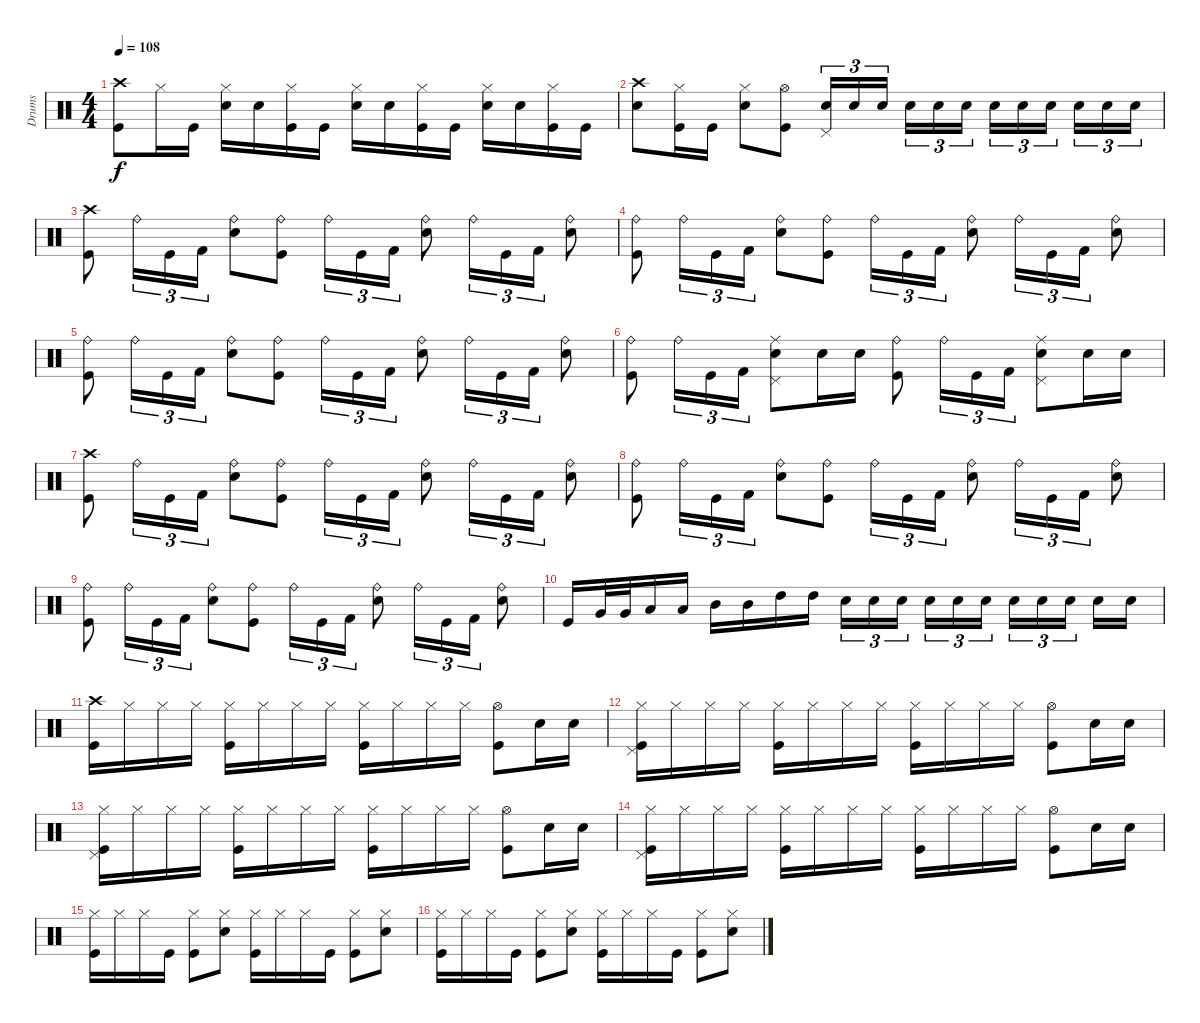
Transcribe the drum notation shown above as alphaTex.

\track ("Drums" "Drums") {instrument percussion}
\staff {score}
\articulation defaults
\ts (4 4)
\tempo 108
\clef neutral
\ks c
("Crash high (hit)" "Kick (hit)").8{dy f} "Hi-Hat (closed)".16 "Kick (hit)".16 ("Snare (hit) 2" "Hi-Hat (closed)").16 "Snare (hit) 2".16 ("Kick (hit)" "Hi-Hat (closed)").16 "Kick (hit)".16 ("Snare (hit) 2" "Hi-Hat (closed)").16 "Snare (hit) 2".16 ("Kick (hit)" "Hi-Hat (closed)").16 "Kick (hit)".16 ("Snare (hit) 2" "Hi-Hat (closed)").16 "Snare (hit) 2".16 ("Kick (hit)" "Hi-Hat (closed)").16 "Kick (hit)".16 |
("Crash high (hit)" "Snare (hit) 2").8 ("Hi-Hat (closed)" "Kick (hit)").16 "Kick (hit)".16 ("Snare (hit) 2" "Hi-Hat (closed)").8 ("Hi-Hat (open)" "Kick (hit)").8 ("Snare (hit) 2" "Pedal Hi-Hat (hit)").16{tu (3 2)} "Snare (hit) 2".16{tu (3 2)} "Snare (hit) 2".16{tu (3 2)} "Snare (hit) 2".16{tu (3 2)} "Snare (hit) 2".16{tu (3 2)} "Snare (hit) 2".16{tu (3 2)} "Snare (hit) 2".16{tu (3 2)} "Snare (hit) 2".16{tu (3 2)} "Snare (hit) 2".16{tu (3 2)} "Snare (hit) 2".16{tu (3 2)} "Snare (hit) 2".16{tu (3 2)} "Snare (hit) 2".16{tu (3 2)} |
("Kick (hit)" "Crash high (hit)").8 "Ride (bell)".16{tu (3 2)} "Kick (hit)".16{tu (3 2)} "Kick (hit) 2".16{tu (3 2)} ("Snare (hit) 2" "Ride (bell)").8 ("Kick (hit)" "Ride (bell)").8 "Ride (bell)".16{tu (3 2)} "Kick (hit)".16{tu (3 2)} "Kick (hit) 2".16{tu (3 2)} ("Snare (hit) 2" "Ride (bell)").8 "Ride (bell)".16{tu (3 2)} "Kick (hit)".16{tu (3 2)} "Kick (hit) 2".16{tu (3 2)} ("Snare (hit) 2" "Ride (bell)").8 |
("Kick (hit)" "Ride (bell)").8 "Ride (bell)".16{tu (3 2)} "Kick (hit)".16{tu (3 2)} "Kick (hit) 2".16{tu (3 2)} ("Snare (hit) 2" "Ride (bell)").8 ("Kick (hit)" "Ride (bell)").8 "Ride (bell)".16{tu (3 2)} "Kick (hit)".16{tu (3 2)} "Kick (hit) 2".16{tu (3 2)} ("Snare (hit) 2" "Ride (bell)").8 "Ride (bell)".16{tu (3 2)} "Kick (hit)".16{tu (3 2)} "Kick (hit) 2".16{tu (3 2)} ("Snare (hit) 2" "Ride (bell)").8 |
("Kick (hit)" "Ride (bell)").8 "Ride (bell)".16{tu (3 2)} "Kick (hit)".16{tu (3 2)} "Kick (hit) 2".16{tu (3 2)} ("Snare (hit) 2" "Ride (bell)").8 ("Kick (hit)" "Ride (bell)").8 "Ride (bell)".16{tu (3 2)} "Kick (hit)".16{tu (3 2)} "Kick (hit) 2".16{tu (3 2)} ("Snare (hit) 2" "Ride (bell)").8 "Ride (bell)".16{tu (3 2)} "Kick (hit)".16{tu (3 2)} "Kick (hit) 2".16{tu (3 2)} ("Snare (hit) 2" "Ride (bell)").8 |
("Kick (hit)" "Ride (bell)").8 "Ride (bell)".16{tu (3 2)} "Kick (hit)".16{tu (3 2)} "Kick (hit) 2".16{tu (3 2)} ("Pedal Hi-Hat (hit)" "Ride (middle)" "Snare (hit) 2").8 "Snare (hit) 2".16 "Snare (hit) 2".16 ("Kick (hit)" "Ride (bell)").8 "Ride (bell)".16{tu (3 2)} "Kick (hit)".16{tu (3 2)} "Kick (hit) 2".16{tu (3 2)} ("Pedal Hi-Hat (hit)" "Ride (middle)" "Snare (hit) 2").8 "Snare (hit) 2".16 "Snare (hit) 2".16 |
("Kick (hit)" "Crash high (hit)").8 "Ride (bell)".16{tu (3 2)} "Kick (hit)".16{tu (3 2)} "Kick (hit) 2".16{tu (3 2)} ("Snare (hit) 2" "Ride (bell)").8 ("Kick (hit)" "Ride (bell)").8 "Ride (bell)".16{tu (3 2)} "Kick (hit)".16{tu (3 2)} "Kick (hit) 2".16{tu (3 2)} ("Snare (hit) 2" "Ride (bell)").8 "Ride (bell)".16{tu (3 2)} "Kick (hit)".16{tu (3 2)} "Kick (hit) 2".16{tu (3 2)} ("Snare (hit) 2" "Ride (bell)").8 |
("Kick (hit)" "Ride (bell)").8 "Ride (bell)".16{tu (3 2)} "Kick (hit)".16{tu (3 2)} "Kick (hit) 2".16{tu (3 2)} ("Snare (hit) 2" "Ride (bell)").8 ("Kick (hit)" "Ride (bell)").8 "Ride (bell)".16{tu (3 2)} "Kick (hit)".16{tu (3 2)} "Kick (hit) 2".16{tu (3 2)} ("Snare (hit) 2" "Ride (bell)").8 "Ride (bell)".16{tu (3 2)} "Kick (hit)".16{tu (3 2)} "Kick (hit) 2".16{tu (3 2)} ("Snare (hit) 2" "Ride (bell)").8 |
("Kick (hit)" "Ride (bell)").8 "Ride (bell)".16{tu (3 2)} "Kick (hit)".16{tu (3 2)} "Kick (hit) 2".16{tu (3 2)} ("Snare (hit) 2" "Ride (bell)").8 ("Kick (hit)" "Ride (bell)").8 "Ride (bell)".16{tu (3 2)} "Kick (hit)".16{tu (3 2)} "Kick (hit) 2".16{tu (3 2)} ("Snare (hit) 2" "Ride (bell)").8 "Ride (bell)".16{tu (3 2)} "Kick (hit)".16{tu (3 2)} "Kick (hit) 2".16{tu (3 2)} ("Snare (hit) 2" "Ride (bell)").8 |
"Kick (hit)".16 "Very Low Tom (hit)".32 "Very Low Tom (hit)".32 "Low Tom (hit)".16 "Low Tom (hit)".16 "Mid Tom (hit)".16 "Mid Tom (hit)".16 "High Tom (hit)".16 "High Tom (hit)".16 "Snare (hit) 2".16{tu (3 2)} "Snare (hit) 2".16{tu (3 2)} "Snare (hit) 2".16{tu (3 2)} "Snare (hit) 2".16{tu (3 2)} "Snare (hit) 2".16{tu (3 2)} "Snare (hit) 2".16{tu (3 2)} "Snare (hit) 2".16{tu (3 2)} "Snare (hit) 2".16{tu (3 2)} "Snare (hit) 2".16{tu (3 2)} "Snare (hit) 2".16 "Snare (hit) 2".16 |
("Kick (hit)" "Crash high (hit)").16 "Hi-Hat (closed)".16 "Hi-Hat (closed)".16 "Hi-Hat (closed)".16 ("Kick (hit)" "Hi-Hat (closed)").16 "Hi-Hat (closed)".16 "Hi-Hat (closed)".16 "Hi-Hat (closed)".16 ("Kick (hit)" "Hi-Hat (closed)").16 "Hi-Hat (closed)".16 "Hi-Hat (closed)".16 "Hi-Hat (closed)".16 ("Hi-Hat (open)" "Kick (hit)").8 "Snare (hit) 2".16 "Snare (hit) 2".16 |
("Kick (hit)" "Pedal Hi-Hat (hit)" "Hi-Hat (closed)").16 "Hi-Hat (closed)".16 "Hi-Hat (closed)".16 "Hi-Hat (closed)".16 ("Kick (hit)" "Hi-Hat (closed)").16 "Hi-Hat (closed)".16 "Hi-Hat (closed)".16 "Hi-Hat (closed)".16 ("Kick (hit)" "Hi-Hat (closed)").16 "Hi-Hat (closed)".16 "Hi-Hat (closed)".16 "Hi-Hat (closed)".16 ("Hi-Hat (open)" "Kick (hit)").8 "Snare (hit) 2".16 "Snare (hit) 2".16 |
("Kick (hit)" "Pedal Hi-Hat (hit)" "Hi-Hat (closed)").16 "Hi-Hat (closed)".16 "Hi-Hat (closed)".16 "Hi-Hat (closed)".16 ("Kick (hit)" "Hi-Hat (closed)").16 "Hi-Hat (closed)".16 "Hi-Hat (closed)".16 "Hi-Hat (closed)".16 ("Kick (hit)" "Hi-Hat (closed)").16 "Hi-Hat (closed)".16 "Hi-Hat (closed)".16 "Hi-Hat (closed)".16 ("Hi-Hat (open)" "Kick (hit)").8 "Snare (hit) 2".16 "Snare (hit) 2".16 |
("Kick (hit)" "Pedal Hi-Hat (hit)" "Hi-Hat (closed)").16 "Hi-Hat (closed)".16 "Hi-Hat (closed)".16 "Hi-Hat (closed)".16 ("Kick (hit)" "Hi-Hat (closed)").16 "Hi-Hat (closed)".16 "Hi-Hat (closed)".16 "Hi-Hat (closed)".16 ("Kick (hit)" "Hi-Hat (closed)").16 "Hi-Hat (closed)".16 "Hi-Hat (closed)".16 "Hi-Hat (closed)".16 ("Hi-Hat (open)" "Kick (hit)").8 "Snare (hit) 2".16 "Snare (hit) 2".16 |
("Kick (hit)" "Hi-Hat (closed)").16 "Hi-Hat (closed)".16 "Hi-Hat (closed)".16 "Kick (hit)".16 ("Kick (hit)" "Hi-Hat (closed)").8 ("Electric Snare (hit)" "Hi-Hat (closed)").8 ("Kick (hit)" "Hi-Hat (closed)").16 "Hi-Hat (closed)".16 "Hi-Hat (closed)".16 "Kick (hit)".16 ("Kick (hit)" "Hi-Hat (closed)").8 ("Electric Snare (hit)" "Hi-Hat (closed)").8 |
("Kick (hit)" "Hi-Hat (closed)").16 "Hi-Hat (closed)".16 "Hi-Hat (closed)".16 "Kick (hit)".16 ("Kick (hit)" "Hi-Hat (closed)").8 ("Electric Snare (hit)" "Hi-Hat (closed)").8 ("Kick (hit)" "Hi-Hat (closed)").16 "Hi-Hat (closed)".16 "Hi-Hat (closed)".16 "Kick (hit)".16 ("Kick (hit)" "Hi-Hat (closed)").8 ("Electric Snare (hit)" "Hi-Hat (closed)").8
